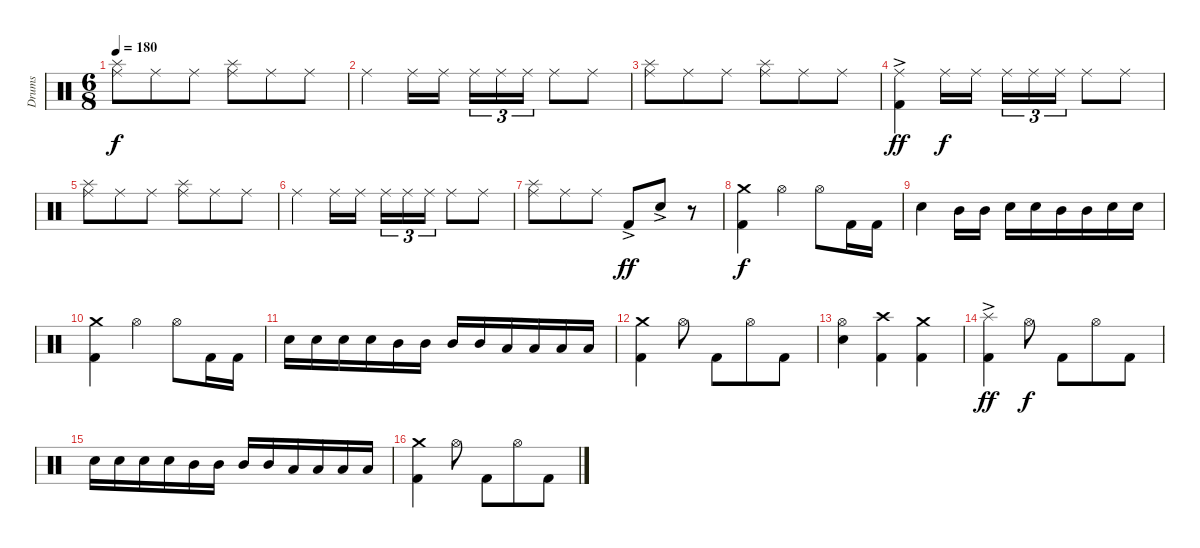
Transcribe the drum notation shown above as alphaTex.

\track ("Drums" "Drums") {instrument percussion}
\staff {score}
\articulation defaults
\ts (6 8)
\tempo 180
\clef neutral
\ks c
("Ride (middle)" "Splash (hit)").8{dy f} "Ride (middle)".8 "Ride (middle)".8 ("Ride (middle)" "Splash (hit)").8 "Ride (middle)".8 "Ride (middle)".8 |
"Ride (middle)".4 "Ride (middle)".16 "Ride (middle)".16 "Ride (middle)".16{tu (3 2)} "Ride (middle)".16{tu (3 2)} "Ride (middle)".16{tu (3 2)} "Ride (middle)".8 "Ride (middle)".8 |
("Ride (middle)" "Splash (hit)").8 "Ride (middle)".8 "Ride (middle)".8 ("Ride (middle)" "Splash (hit)").8 "Ride (middle)".8 "Ride (middle)".8 |
("Ride (middle)" "Kick (hit) 2"{ac}).4{dy ff} "Ride (middle)".16{dy f} "Ride (middle)".16 "Ride (middle)".16{tu (3 2)} "Ride (middle)".16{tu (3 2)} "Ride (middle)".16{tu (3 2)} "Ride (middle)".8 "Ride (middle)".8 |
("Ride (middle)" "Splash (hit)").8 "Ride (middle)".8 "Ride (middle)".8 ("Ride (middle)" "Splash (hit)").8 "Ride (middle)".8 "Ride (middle)".8 |
"Ride (middle)".4 "Ride (middle)".16 "Ride (middle)".16 "Ride (middle)".16{tu (3 2)} "Ride (middle)".16{tu (3 2)} "Ride (middle)".16{tu (3 2)} "Ride (middle)".8 "Ride (middle)".8 |
("Ride (middle)" "Splash (hit)").8 "Ride (middle)".8 "Ride (middle)".8 "Kick (hit) 2"{ac}.8{dy ff} "Electric Snare (hit)"{ac}.8 r.8 |
("Crash medium (hit)" "Kick (hit) 2").4{dy f} "Hi-Hat (open)".4 "Hi-Hat (open)".8 "Kick (hit) 2".16 "Kick (hit) 2".16 |
"Electric Snare (hit)".4 "Mid Tom (hit)".16 "Mid Tom (hit)".16 "Electric Snare (hit)".16 "Electric Snare (hit)".16 "Mid Tom (hit)".16 "Mid Tom (hit)".16 "Electric Snare (hit)".16 "Electric Snare (hit)".16 |
("Crash medium (hit)" "Kick (hit) 2").4 "Hi-Hat (open)".4 "Hi-Hat (open)".8 "Kick (hit) 2".16 "Kick (hit) 2".16 |
"Electric Snare (hit)".16 "Electric Snare (hit)".16 "Electric Snare (hit)".16 "Electric Snare (hit)".16 "Mid Tom (hit)".16 "Mid Tom (hit)".16 "Mid Tom (hit)".16 "Mid Tom (hit)".16 "Low Tom (hit)".16 "Low Tom (hit)".16 "Low Tom (hit)".16 "Low Tom (hit)".16 |
("Crash medium (hit)" "Kick (hit) 2").4 "Hi-Hat (open)".8 "Kick (hit) 2".8 "Hi-Hat (open)".8 "Kick (hit) 2".8 |
("Hi-Hat (open)" "Electric Snare (hit)").4 ("Crash high (hit)" "Kick (hit) 2").4 ("Crash medium (hit)" "Kick (hit) 2").4 |
("Splash (hit)"{ac} "Kick (hit) 2").4{dy ff} "Hi-Hat (open)".8{dy f} "Kick (hit) 2".8 "Hi-Hat (open)".8 "Kick (hit) 2".8 |
"Electric Snare (hit)".16 "Electric Snare (hit)".16 "Electric Snare (hit)".16 "Electric Snare (hit)".16 "Mid Tom (hit)".16 "Mid Tom (hit)".16 "Mid Tom (hit)".16 "Mid Tom (hit)".16 "Low Tom (hit)".16 "Low Tom (hit)".16 "Low Tom (hit)".16 "Low Tom (hit)".16 |
("Crash medium (hit)" "Kick (hit) 2").4 "Hi-Hat (open)".8 "Kick (hit) 2".8 "Hi-Hat (open)".8 "Kick (hit) 2".8
